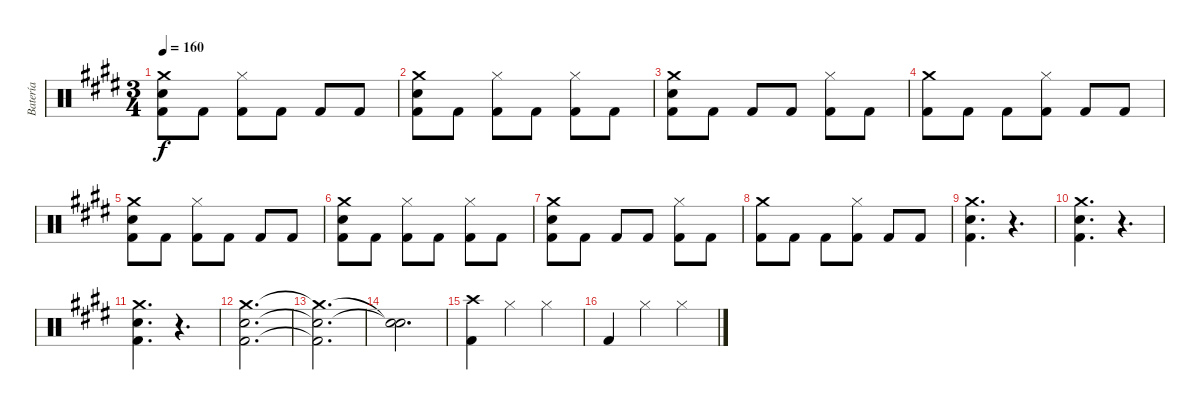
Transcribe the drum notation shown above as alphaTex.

\track ("Batería" "Batería") {instrument percussion}
\staff {score}
\articulation defaults
\ts (3 4)
\tempo 160
\clef neutral
\ks c#minor
("Crash medium (hit)" "Snare (hit) 2" "Kick (hit) 2").8{dy f} "Kick (hit) 2".8 ("Hi-Hat (closed)" "Kick (hit) 2").8 "Kick (hit) 2".8 "Kick (hit) 2".8 "Kick (hit) 2".8 |
("Crash medium (hit)" "Snare (hit) 2" "Kick (hit) 2").8 "Kick (hit) 2".8 ("Hi-Hat (closed)" "Kick (hit) 2").8 "Kick (hit) 2".8 ("Hi-Hat (closed)" "Kick (hit) 2").8 "Kick (hit) 2".8 |
("Crash medium (hit)" "Snare (hit) 2" "Kick (hit) 2").8 "Kick (hit) 2".8 "Kick (hit) 2".8 "Kick (hit) 2".8 ("Hi-Hat (closed)" "Kick (hit) 2").8 "Kick (hit) 2".8 |
("Crash medium (hit)" "Kick (hit) 2").8 "Kick (hit) 2".8 "Kick (hit) 2".8 ("Hi-Hat (closed)" "Kick (hit) 2").8 "Kick (hit) 2".8 "Kick (hit) 2".8 |
("Crash medium (hit)" "Snare (hit) 2" "Kick (hit) 2").8 "Kick (hit) 2".8 ("Hi-Hat (closed)" "Kick (hit) 2").8 "Kick (hit) 2".8 "Kick (hit) 2".8 "Kick (hit) 2".8 |
("Crash medium (hit)" "Snare (hit) 2" "Kick (hit) 2").8 "Kick (hit) 2".8 ("Hi-Hat (closed)" "Kick (hit) 2").8 "Kick (hit) 2".8 ("Hi-Hat (closed)" "Kick (hit) 2").8 "Kick (hit) 2".8 |
("Crash medium (hit)" "Snare (hit) 2" "Kick (hit) 2").8 "Kick (hit) 2".8 "Kick (hit) 2".8 "Kick (hit) 2".8 ("Hi-Hat (closed)" "Kick (hit) 2").8 "Kick (hit) 2".8 |
("Crash medium (hit)" "Kick (hit) 2").8 "Kick (hit) 2".8 "Kick (hit) 2".8 ("Hi-Hat (closed)" "Kick (hit) 2").8 "Kick (hit) 2".8 "Kick (hit) 2".8 |
("Crash medium (hit)" "Snare (hit) 2" "Kick (hit) 2").4{d} r.4{d} |
("Crash medium (hit)" "Snare (hit) 2" "Kick (hit) 2").4{d} r.4{d} |
("Crash medium (hit)" "Snare (hit) 2" "Kick (hit) 2").4{d} r.4{d} |
("Crash medium (hit)" "Snare (hit) 2" "Kick (hit) 2").2{d} |
("Crash medium (hit)"{t} "Snare (hit) 2"{t} "Kick (hit) 2"{t}).2{d} |
("Snare (hit)"{t} "Snare (hit)"{t}).2{d} |
("Crash high (hit)" "Kick (hit) 2").4 "Hi-Hat (closed)".4 "Hi-Hat (closed)".4 |
"Kick (hit) 2".4 "Hi-Hat (closed)".4 "Hi-Hat (closed)".4
